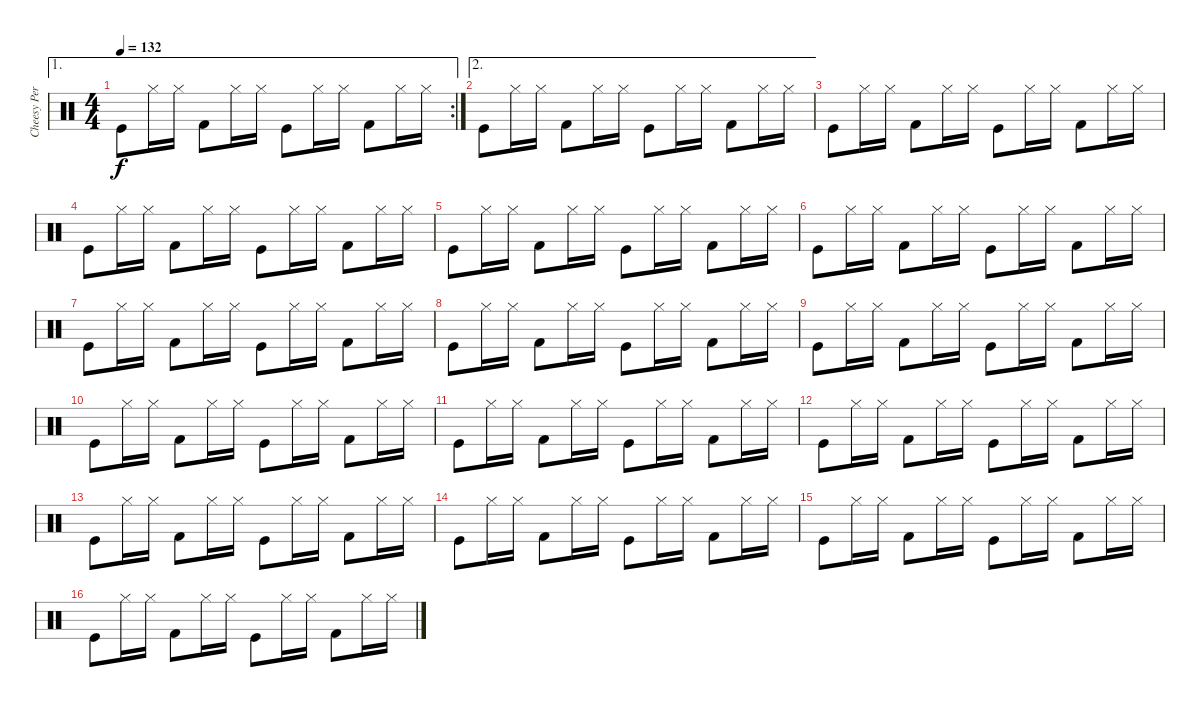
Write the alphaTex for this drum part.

\track ("Cheesy Percussion" "Cheesy Per") {instrument percussion}
\staff {score}
\articulation defaults
\ae 1
\rc 2
\ts (4 4)
\tempo 132
\clef neutral
\ks c "Kick (hit)".8{dy f} "Hi-Hat (closed)".16 "Hi-Hat (closed)".16 "Kick (hit) 2".8 "Hi-Hat (closed)".16 "Hi-Hat (closed)".16 "Kick (hit)".8 "Hi-Hat (closed)".16 "Hi-Hat (closed)".16 "Kick (hit) 2".8 "Hi-Hat (closed)".16 "Hi-Hat (closed)".16
|
\ae 2 "Kick (hit)".8 "Hi-Hat (closed)".16 "Hi-Hat (closed)".16 "Kick (hit) 2".8 "Hi-Hat (closed)".16 "Hi-Hat (closed)".16 "Kick (hit)".8 "Hi-Hat (closed)".16 "Hi-Hat (closed)".16 "Kick (hit) 2".8 "Hi-Hat (closed)".16 "Hi-Hat (closed)".16
|
"Kick (hit)".8 "Hi-Hat (closed)".16 "Hi-Hat (closed)".16 "Kick (hit) 2".8 "Hi-Hat (closed)".16 "Hi-Hat (closed)".16 "Kick (hit)".8 "Hi-Hat (closed)".16 "Hi-Hat (closed)".16 "Kick (hit) 2".8 "Hi-Hat (closed)".16 "Hi-Hat (closed)".16 |
"Kick (hit)".8 "Hi-Hat (closed)".16 "Hi-Hat (closed)".16 "Kick (hit) 2".8 "Hi-Hat (closed)".16 "Hi-Hat (closed)".16 "Kick (hit)".8 "Hi-Hat (closed)".16 "Hi-Hat (closed)".16 "Kick (hit) 2".8 "Hi-Hat (closed)".16 "Hi-Hat (closed)".16 |
"Kick (hit)".8 "Hi-Hat (closed)".16 "Hi-Hat (closed)".16 "Kick (hit) 2".8 "Hi-Hat (closed)".16 "Hi-Hat (closed)".16 "Kick (hit)".8 "Hi-Hat (closed)".16 "Hi-Hat (closed)".16 "Kick (hit) 2".8 "Hi-Hat (closed)".16 "Hi-Hat (closed)".16 |
"Kick (hit)".8 "Hi-Hat (closed)".16 "Hi-Hat (closed)".16 "Kick (hit) 2".8 "Hi-Hat (closed)".16 "Hi-Hat (closed)".16 "Kick (hit)".8 "Hi-Hat (closed)".16 "Hi-Hat (closed)".16 "Kick (hit) 2".8 "Hi-Hat (closed)".16 "Hi-Hat (closed)".16 |
"Kick (hit)".8 "Hi-Hat (closed)".16 "Hi-Hat (closed)".16 "Kick (hit) 2".8 "Hi-Hat (closed)".16 "Hi-Hat (closed)".16 "Kick (hit)".8 "Hi-Hat (closed)".16 "Hi-Hat (closed)".16 "Kick (hit) 2".8 "Hi-Hat (closed)".16 "Hi-Hat (closed)".16 |
"Kick (hit)".8 "Hi-Hat (closed)".16 "Hi-Hat (closed)".16 "Kick (hit) 2".8 "Hi-Hat (closed)".16 "Hi-Hat (closed)".16 "Kick (hit)".8 "Hi-Hat (closed)".16 "Hi-Hat (closed)".16 "Kick (hit) 2".8 "Hi-Hat (closed)".16 "Hi-Hat (closed)".16 |
"Kick (hit)".8 "Hi-Hat (closed)".16 "Hi-Hat (closed)".16 "Kick (hit) 2".8 "Hi-Hat (closed)".16 "Hi-Hat (closed)".16 "Kick (hit)".8 "Hi-Hat (closed)".16 "Hi-Hat (closed)".16 "Kick (hit) 2".8 "Hi-Hat (closed)".16 "Hi-Hat (closed)".16 |
"Kick (hit)".8 "Hi-Hat (closed)".16 "Hi-Hat (closed)".16 "Kick (hit) 2".8 "Hi-Hat (closed)".16 "Hi-Hat (closed)".16 "Kick (hit)".8 "Hi-Hat (closed)".16 "Hi-Hat (closed)".16 "Kick (hit) 2".8 "Hi-Hat (closed)".16 "Hi-Hat (closed)".16 |
"Kick (hit)".8 "Hi-Hat (closed)".16 "Hi-Hat (closed)".16 "Kick (hit) 2".8 "Hi-Hat (closed)".16 "Hi-Hat (closed)".16 "Kick (hit)".8 "Hi-Hat (closed)".16 "Hi-Hat (closed)".16 "Kick (hit) 2".8 "Hi-Hat (closed)".16 "Hi-Hat (closed)".16 |
"Kick (hit)".8 "Hi-Hat (closed)".16 "Hi-Hat (closed)".16 "Kick (hit) 2".8 "Hi-Hat (closed)".16 "Hi-Hat (closed)".16 "Kick (hit)".8 "Hi-Hat (closed)".16 "Hi-Hat (closed)".16 "Kick (hit) 2".8 "Hi-Hat (closed)".16 "Hi-Hat (closed)".16 |
"Kick (hit)".8 "Hi-Hat (closed)".16 "Hi-Hat (closed)".16 "Kick (hit) 2".8 "Hi-Hat (closed)".16 "Hi-Hat (closed)".16 "Kick (hit)".8 "Hi-Hat (closed)".16 "Hi-Hat (closed)".16 "Kick (hit) 2".8 "Hi-Hat (closed)".16 "Hi-Hat (closed)".16 |
"Kick (hit)".8 "Hi-Hat (closed)".16 "Hi-Hat (closed)".16 "Kick (hit) 2".8 "Hi-Hat (closed)".16 "Hi-Hat (closed)".16 "Kick (hit)".8 "Hi-Hat (closed)".16 "Hi-Hat (closed)".16 "Kick (hit) 2".8 "Hi-Hat (closed)".16 "Hi-Hat (closed)".16 |
"Kick (hit)".8 "Hi-Hat (closed)".16 "Hi-Hat (closed)".16 "Kick (hit) 2".8 "Hi-Hat (closed)".16 "Hi-Hat (closed)".16 "Kick (hit)".8 "Hi-Hat (closed)".16 "Hi-Hat (closed)".16 "Kick (hit) 2".8 "Hi-Hat (closed)".16 "Hi-Hat (closed)".16 |
"Kick (hit)".8 "Hi-Hat (closed)".16 "Hi-Hat (closed)".16 "Kick (hit) 2".8 "Hi-Hat (closed)".16 "Hi-Hat (closed)".16 "Kick (hit)".8 "Hi-Hat (closed)".16 "Hi-Hat (closed)".16 "Kick (hit) 2".8 "Hi-Hat (closed)".16 "Hi-Hat (closed)".16
